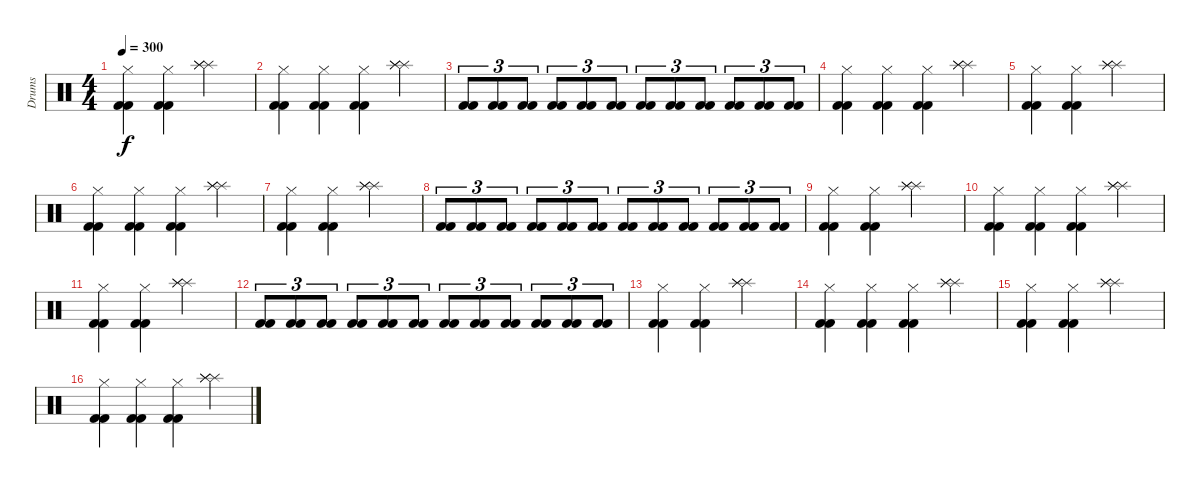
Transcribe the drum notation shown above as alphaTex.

\track ("Drums" "Drums") {instrument percussion}
\staff {score}
\articulation defaults
\ts (4 4)
\tempo 300
\clef neutral
\ks c
("Hi-Hat (closed)" "Kick (hit) 2" "Kick (hit) 2").4{dy f} ("Hi-Hat (closed)" "Kick (hit) 2" "Kick (hit) 2").4 ("Splash (hit)" "Splash (hit)" "Splash (hit)").2 |
("Hi-Hat (closed)" "Kick (hit) 2" "Kick (hit) 2").4 ("Hi-Hat (closed)" "Kick (hit) 2" "Kick (hit) 2").4 ("Hi-Hat (closed)" "Kick (hit) 2" "Kick (hit) 2").4 ("Splash (hit)" "Splash (hit)" "Splash (hit)").4 |
("Kick (hit) 2" "Kick (hit) 2").8{tu (3 2)} ("Kick (hit) 2" "Kick (hit) 2").8{tu (3 2)} ("Kick (hit) 2" "Kick (hit) 2").8{tu (3 2)} ("Kick (hit) 2" "Kick (hit) 2").8{tu (3 2)} ("Kick (hit) 2" "Kick (hit) 2").8{tu (3 2)} ("Kick (hit) 2" "Kick (hit) 2").8{tu (3 2)} ("Kick (hit) 2" "Kick (hit) 2").8{tu (3 2)} ("Kick (hit) 2" "Kick (hit) 2").8{tu (3 2)} ("Kick (hit) 2" "Kick (hit) 2").8{tu (3 2)} ("Kick (hit) 2" "Kick (hit) 2").8{tu (3 2)} ("Kick (hit) 2" "Kick (hit) 2").8{tu (3 2)} ("Kick (hit) 2" "Kick (hit) 2").8{tu (3 2)} |
("Hi-Hat (closed)" "Kick (hit) 2" "Kick (hit) 2").4 ("Hi-Hat (closed)" "Kick (hit) 2" "Kick (hit) 2").4 ("Hi-Hat (closed)" "Kick (hit) 2" "Kick (hit) 2").4 ("Splash (hit)" "Splash (hit)" "Splash (hit)").4 |
("Hi-Hat (closed)" "Kick (hit) 2" "Kick (hit) 2").4 ("Hi-Hat (closed)" "Kick (hit) 2" "Kick (hit) 2").4 ("Splash (hit)" "Splash (hit)" "Splash (hit)").2 |
("Hi-Hat (closed)" "Kick (hit) 2" "Kick (hit) 2").4 ("Hi-Hat (closed)" "Kick (hit) 2" "Kick (hit) 2").4 ("Hi-Hat (closed)" "Kick (hit) 2" "Kick (hit) 2").4 ("Splash (hit)" "Splash (hit)" "Splash (hit)").4 |
("Hi-Hat (closed)" "Kick (hit) 2" "Kick (hit) 2").4 ("Hi-Hat (closed)" "Kick (hit) 2" "Kick (hit) 2").4 ("Splash (hit)" "Splash (hit)" "Splash (hit)").2 |
("Kick (hit) 2" "Kick (hit) 2").8{tu (3 2)} ("Kick (hit) 2" "Kick (hit) 2").8{tu (3 2)} ("Kick (hit) 2" "Kick (hit) 2").8{tu (3 2)} ("Kick (hit) 2" "Kick (hit) 2").8{tu (3 2)} ("Kick (hit) 2" "Kick (hit) 2").8{tu (3 2)} ("Kick (hit) 2" "Kick (hit) 2").8{tu (3 2)} ("Kick (hit) 2" "Kick (hit) 2").8{tu (3 2)} ("Kick (hit) 2" "Kick (hit) 2").8{tu (3 2)} ("Kick (hit) 2" "Kick (hit) 2").8{tu (3 2)} ("Kick (hit) 2" "Kick (hit) 2").8{tu (3 2)} ("Kick (hit) 2" "Kick (hit) 2").8{tu (3 2)} ("Kick (hit) 2" "Kick (hit) 2").8{tu (3 2)} |
("Hi-Hat (closed)" "Kick (hit) 2" "Kick (hit) 2").4 ("Hi-Hat (closed)" "Kick (hit) 2" "Kick (hit) 2").4 ("Splash (hit)" "Splash (hit)" "Splash (hit)").2 |
("Hi-Hat (closed)" "Kick (hit) 2" "Kick (hit) 2").4 ("Hi-Hat (closed)" "Kick (hit) 2" "Kick (hit) 2").4 ("Hi-Hat (closed)" "Kick (hit) 2" "Kick (hit) 2").4 ("Splash (hit)" "Splash (hit)" "Splash (hit)").4 |
("Hi-Hat (closed)" "Kick (hit) 2" "Kick (hit) 2").4 ("Hi-Hat (closed)" "Kick (hit) 2" "Kick (hit) 2").4 ("Splash (hit)" "Splash (hit)" "Splash (hit)").2 |
("Kick (hit) 2" "Kick (hit) 2").8{tu (3 2)} ("Kick (hit) 2" "Kick (hit) 2").8{tu (3 2)} ("Kick (hit) 2" "Kick (hit) 2").8{tu (3 2)} ("Kick (hit) 2" "Kick (hit) 2").8{tu (3 2)} ("Kick (hit) 2" "Kick (hit) 2").8{tu (3 2)} ("Kick (hit) 2" "Kick (hit) 2").8{tu (3 2)} ("Kick (hit) 2" "Kick (hit) 2").8{tu (3 2)} ("Kick (hit) 2" "Kick (hit) 2").8{tu (3 2)} ("Kick (hit) 2" "Kick (hit) 2").8{tu (3 2)} ("Kick (hit) 2" "Kick (hit) 2").8{tu (3 2)} ("Kick (hit) 2" "Kick (hit) 2").8{tu (3 2)} ("Kick (hit) 2" "Kick (hit) 2").8{tu (3 2)} |
("Hi-Hat (closed)" "Kick (hit) 2" "Kick (hit) 2").4 ("Hi-Hat (closed)" "Kick (hit) 2" "Kick (hit) 2").4 ("Splash (hit)" "Splash (hit)" "Splash (hit)").2 |
("Hi-Hat (closed)" "Kick (hit) 2" "Kick (hit) 2").4 ("Hi-Hat (closed)" "Kick (hit) 2" "Kick (hit) 2").4 ("Hi-Hat (closed)" "Kick (hit) 2" "Kick (hit) 2").4 ("Splash (hit)" "Splash (hit)" "Splash (hit)").4 |
("Hi-Hat (closed)" "Kick (hit) 2" "Kick (hit) 2").4 ("Hi-Hat (closed)" "Kick (hit) 2" "Kick (hit) 2").4 ("Splash (hit)" "Splash (hit)" "Splash (hit)").2 |
("Hi-Hat (closed)" "Kick (hit) 2" "Kick (hit) 2").4 ("Hi-Hat (closed)" "Kick (hit) 2" "Kick (hit) 2").4 ("Hi-Hat (closed)" "Kick (hit) 2" "Kick (hit) 2").4 ("Splash (hit)" "Splash (hit)" "Splash (hit)").4
